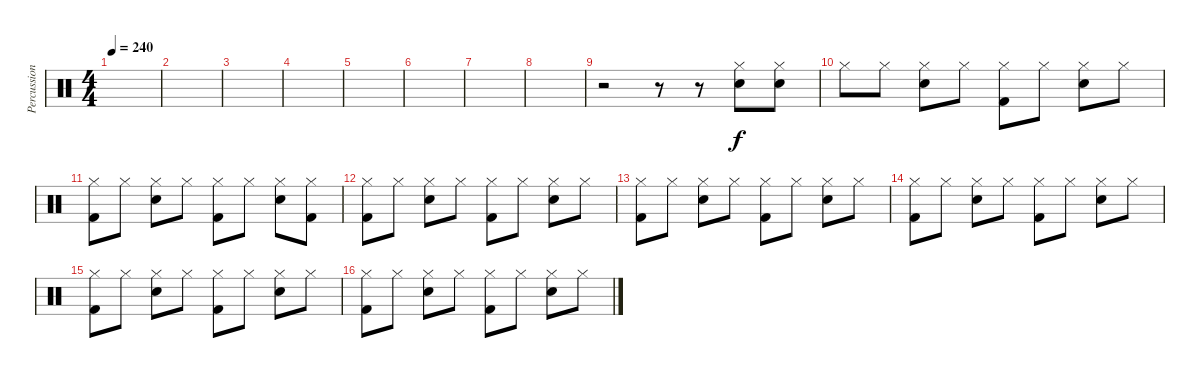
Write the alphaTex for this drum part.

\track ("Percussion" "Percussion") {instrument percussion}
\staff {score}
\articulation defaults
\ts (4 4)
\tempo 240
\clef neutral
\ks c
|
|
|
|
|
|
|
|
r.2 r.8 r.8 ("Electric Snare (hit)" "Hi-Hat (closed)").8 ("Electric Snare (hit)" "Hi-Hat (closed)").8 |
"Hi-Hat (closed)".8 "Hi-Hat (closed)".8 ("Electric Snare (hit)" "Hi-Hat (closed)").8 "Hi-Hat (closed)".8 ("Kick (hit) 2" "Hi-Hat (closed)").8 "Hi-Hat (closed)".8 ("Electric Snare (hit)" "Hi-Hat (closed)").8 "Hi-Hat (closed)".8 |
("Kick (hit) 2" "Hi-Hat (closed)").8 "Hi-Hat (closed)".8 ("Electric Snare (hit)" "Hi-Hat (closed)").8 "Hi-Hat (closed)".8 ("Kick (hit) 2" "Hi-Hat (closed)").8 "Hi-Hat (closed)".8 ("Electric Snare (hit)" "Hi-Hat (closed)").8 ("Kick (hit) 2" "Hi-Hat (closed)").8 |
("Kick (hit) 2" "Hi-Hat (closed)").8 "Hi-Hat (closed)".8 ("Electric Snare (hit)" "Hi-Hat (closed)").8 "Hi-Hat (closed)".8 ("Kick (hit) 2" "Hi-Hat (closed)").8 "Hi-Hat (closed)".8 ("Electric Snare (hit)" "Hi-Hat (closed)").8 "Hi-Hat (closed)".8 |
("Kick (hit) 2" "Hi-Hat (closed)").8 "Hi-Hat (closed)".8 ("Electric Snare (hit)" "Hi-Hat (closed)").8 "Hi-Hat (closed)".8 ("Kick (hit) 2" "Hi-Hat (closed)").8 "Hi-Hat (closed)".8 ("Electric Snare (hit)" "Hi-Hat (closed)").8 "Hi-Hat (closed)".8 |
("Kick (hit) 2" "Hi-Hat (closed)").8 "Hi-Hat (closed)".8 ("Electric Snare (hit)" "Hi-Hat (closed)").8 "Hi-Hat (closed)".8 ("Kick (hit) 2" "Hi-Hat (closed)").8 "Hi-Hat (closed)".8 ("Electric Snare (hit)" "Hi-Hat (closed)").8 "Hi-Hat (closed)".8 |
("Kick (hit) 2" "Hi-Hat (closed)").8 "Hi-Hat (closed)".8 ("Electric Snare (hit)" "Hi-Hat (closed)").8 "Hi-Hat (closed)".8 ("Kick (hit) 2" "Hi-Hat (closed)").8 "Hi-Hat (closed)".8 ("Electric Snare (hit)" "Hi-Hat (closed)").8 "Hi-Hat (closed)".8 |
("Kick (hit) 2" "Hi-Hat (closed)").8 "Hi-Hat (closed)".8 ("Electric Snare (hit)" "Hi-Hat (closed)").8 "Hi-Hat (closed)".8 ("Kick (hit) 2" "Hi-Hat (closed)").8 "Hi-Hat (closed)".8 ("Electric Snare (hit)" "Hi-Hat (closed)").8 "Hi-Hat (closed)".8
